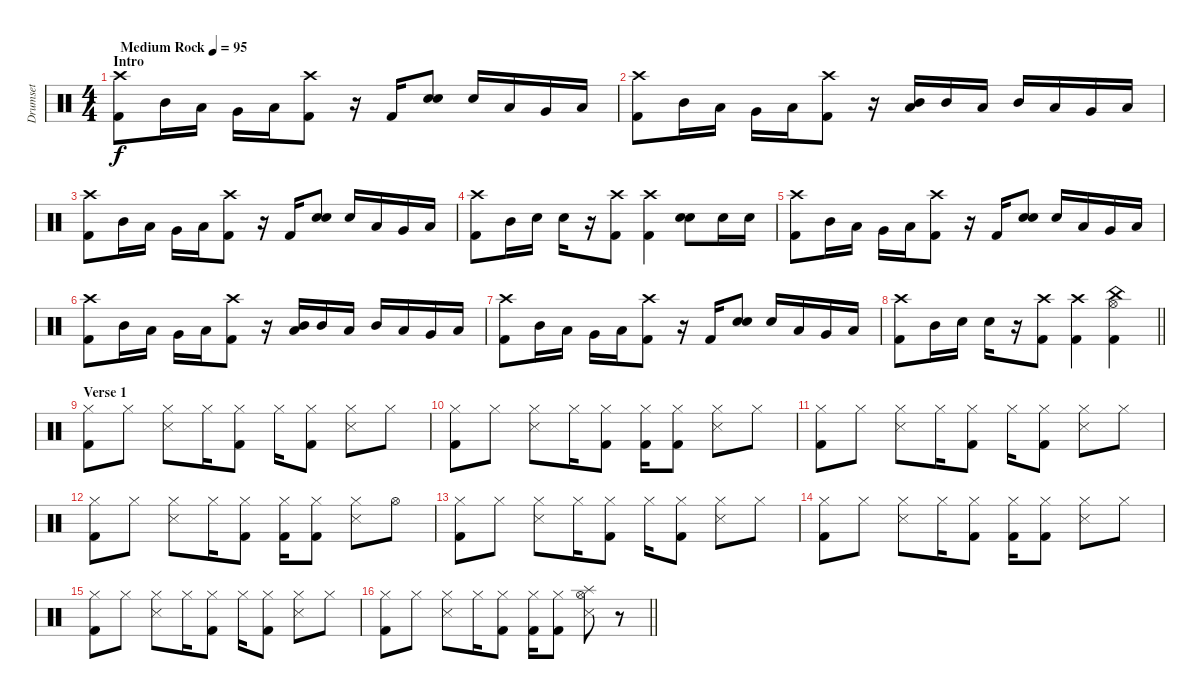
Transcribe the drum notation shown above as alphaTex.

\track ("Drumset" "Drumset") {solo instrument percussion}
\staff {score}
\articulation defaults
\ts (4 4)
\section ("" "Intro")
\tempo (95 "Medium Rock")
\clef neutral
\ks c
("Crash high (hit)" "Kick (hit) 2").8{dy f} "Mid Tom (hit)".16 "Low Tom (hit)".16 "Very Low Tom (hit)".16 "Low Floor Tom (hit)".16 ("Crash high (hit)" "Kick (hit) 2").8 r.16 "Kick (hit) 2".16 ("Snare (hit) 2" "Snare (hit) 2").8 "Snare (hit) 2".16 "Low Tom (hit)".16 "Very Low Tom (hit)".16 "Low Floor Tom (hit)".16 |
("Crash high (hit)" "Kick (hit) 2").8 "Mid Tom (hit)".16 "Low Tom (hit)".16 "Very Low Tom (hit)".16 "Low Floor Tom (hit)".16 ("Crash high (hit)" "Kick (hit) 2").8 r.16 ("Mid Tom (hit)" "Low Tom (hit)").16 "Mid Tom (hit)".16 "Low Tom (hit)".16 "Mid Tom (hit)".16 "Low Tom (hit)".16 "Very Low Tom (hit)".16 "Low Floor Tom (hit)".16 |
("Crash high (hit)" "Kick (hit) 2").8 "Mid Tom (hit)".16 "Low Tom (hit)".16 "Very Low Tom (hit)".16 "Low Floor Tom (hit)".16 ("Crash high (hit)" "Kick (hit) 2").8 r.16 "Kick (hit) 2".16 ("Snare (hit) 2" "Snare (hit) 2").8 "Snare (hit) 2".16 "Low Tom (hit)".16 "Very Low Tom (hit)".16 "Low Floor Tom (hit)".16 |
("Crash high (hit)" "Kick (hit) 2").8 "Mid Tom (hit)".16 "Snare (hit) 2".16 "Snare (hit) 2".16 r.16 ("Crash high (hit)" "Kick (hit) 2").8 ("Crash high (hit)" "Kick (hit) 2").4 ("Snare (hit) 2" "Snare (hit) 2").8 "Snare (hit) 2".16 "Snare (hit) 2".16 |
("Crash high (hit)" "Kick (hit) 2").8 "Mid Tom (hit)".16 "Low Tom (hit)".16 "Very Low Tom (hit)".16 "Low Floor Tom (hit)".16 ("Crash high (hit)" "Kick (hit) 2").8 r.16 "Kick (hit) 2".16 ("Snare (hit) 2" "Snare (hit) 2").8 "Snare (hit) 2".16 "Low Tom (hit)".16 "Very Low Tom (hit)".16 "Low Floor Tom (hit)".16 |
("Crash high (hit)" "Kick (hit) 2").8 "Mid Tom (hit)".16 "Low Tom (hit)".16 "Very Low Tom (hit)".16 "Low Floor Tom (hit)".16 ("Crash high (hit)" "Kick (hit) 2").8 r.16 ("Mid Tom (hit)" "Low Tom (hit)").16 "Mid Tom (hit)".16 "Low Tom (hit)".16 "Mid Tom (hit)".16 "Low Tom (hit)".16 "Very Low Tom (hit)".16 "Low Floor Tom (hit)".16 |
("Crash high (hit)" "Kick (hit) 2").8 "Mid Tom (hit)".16 "Low Tom (hit)".16 "Very Low Tom (hit)".16 "Low Floor Tom (hit)".16 ("Crash high (hit)" "Kick (hit) 2").8 r.16 "Kick (hit) 2".16 ("Snare (hit) 2" "Snare (hit) 2").8 "Snare (hit) 2".16 "Low Tom (hit)".16 "Very Low Tom (hit)".16 "Low Floor Tom (hit)".16 |
\barLineRight lightlight
("Crash high (hit)" "Kick (hit) 2").8 "Mid Tom (hit)".16 "Snare (hit) 2".16 "Snare (hit) 2".16 r.16 ("Crash high (hit)" "Kick (hit) 2").8 ("Crash high (hit)" "Kick (hit) 2").4 ("Hi-Hat (open)" "China (hit)" "Kick (hit) 2").4 |
\section ("" "Verse 1")
("Hi-Hat (closed)" "Kick (hit) 2").8 "Hi-Hat (closed)".8 ("Hi-Hat (closed)" "Snare (side stick) 3").8 "Hi-Hat (closed)".16 ("Hi-Hat (closed)" "Kick (hit) 2").8 "Hi-Hat (closed)".16 ("Hi-Hat (closed)" "Kick (hit) 2").8 ("Hi-Hat (closed)" "Snare (side stick) 3").8 "Hi-Hat (closed)".8 |
("Hi-Hat (closed)" "Kick (hit) 2").8 "Hi-Hat (closed)".8 ("Hi-Hat (closed)" "Snare (side stick) 3").8 "Hi-Hat (closed)".16 ("Hi-Hat (closed)" "Kick (hit) 2").8 ("Hi-Hat (closed)" "Kick (hit) 2").16 ("Hi-Hat (closed)" "Kick (hit) 2").8 ("Hi-Hat (closed)" "Snare (side stick) 3").8 "Hi-Hat (closed)".8 |
("Hi-Hat (closed)" "Kick (hit) 2").8 "Hi-Hat (closed)".8 ("Hi-Hat (closed)" "Snare (side stick) 3").8 "Hi-Hat (closed)".16 ("Hi-Hat (closed)" "Kick (hit) 2").8 "Hi-Hat (closed)".16 ("Hi-Hat (closed)" "Kick (hit) 2").8 ("Hi-Hat (closed)" "Snare (side stick) 3").8 "Hi-Hat (closed)".8 |
("Hi-Hat (closed)" "Kick (hit) 2").8 "Hi-Hat (closed)".8 ("Hi-Hat (closed)" "Snare (side stick) 3").8 "Hi-Hat (closed)".16 ("Hi-Hat (closed)" "Kick (hit) 2").8 ("Hi-Hat (closed)" "Kick (hit) 2").16 ("Hi-Hat (closed)" "Kick (hit) 2").8 ("Hi-Hat (closed)" "Snare (side stick) 3").8 "Hi-Hat (open)".8 |
("Hi-Hat (closed)" "Kick (hit) 2").8 "Hi-Hat (closed)".8 ("Hi-Hat (closed)" "Snare (side stick) 3").8 "Hi-Hat (closed)".16 ("Hi-Hat (closed)" "Kick (hit) 2").8 "Hi-Hat (closed)".16 ("Hi-Hat (closed)" "Kick (hit) 2").8 ("Hi-Hat (closed)" "Snare (side stick) 3").8 "Hi-Hat (closed)".8 |
("Hi-Hat (closed)" "Kick (hit) 2").8 "Hi-Hat (closed)".8 ("Hi-Hat (closed)" "Snare (side stick) 3").8 "Hi-Hat (closed)".16 ("Hi-Hat (closed)" "Kick (hit) 2").8 ("Hi-Hat (closed)" "Kick (hit) 2").16 ("Hi-Hat (closed)" "Kick (hit) 2").8 ("Hi-Hat (closed)" "Snare (side stick) 3").8 "Hi-Hat (closed)".8 |
("Hi-Hat (closed)" "Kick (hit) 2").8 "Hi-Hat (closed)".8 ("Hi-Hat (closed)" "Snare (side stick) 3").8 "Hi-Hat (closed)".16 ("Hi-Hat (closed)" "Kick (hit) 2").8 "Hi-Hat (closed)".16 ("Hi-Hat (closed)" "Kick (hit) 2").8 ("Hi-Hat (closed)" "Snare (side stick) 3").8 "Hi-Hat (closed)".8 |
\barLineRight lightlight
("Hi-Hat (closed)" "Kick (hit) 2").8 "Hi-Hat (closed)".8 ("Hi-Hat (closed)" "Snare (side stick) 3").8 "Hi-Hat (closed)".16 ("Hi-Hat (closed)" "Kick (hit) 2").8 ("Hi-Hat (closed)" "Kick (hit) 2").16 ("Hi-Hat (closed)" "Kick (hit) 2").8 ("Hi-Hat (open)" "Splash (hit)" "Snare (side stick) 3").8 r.8
